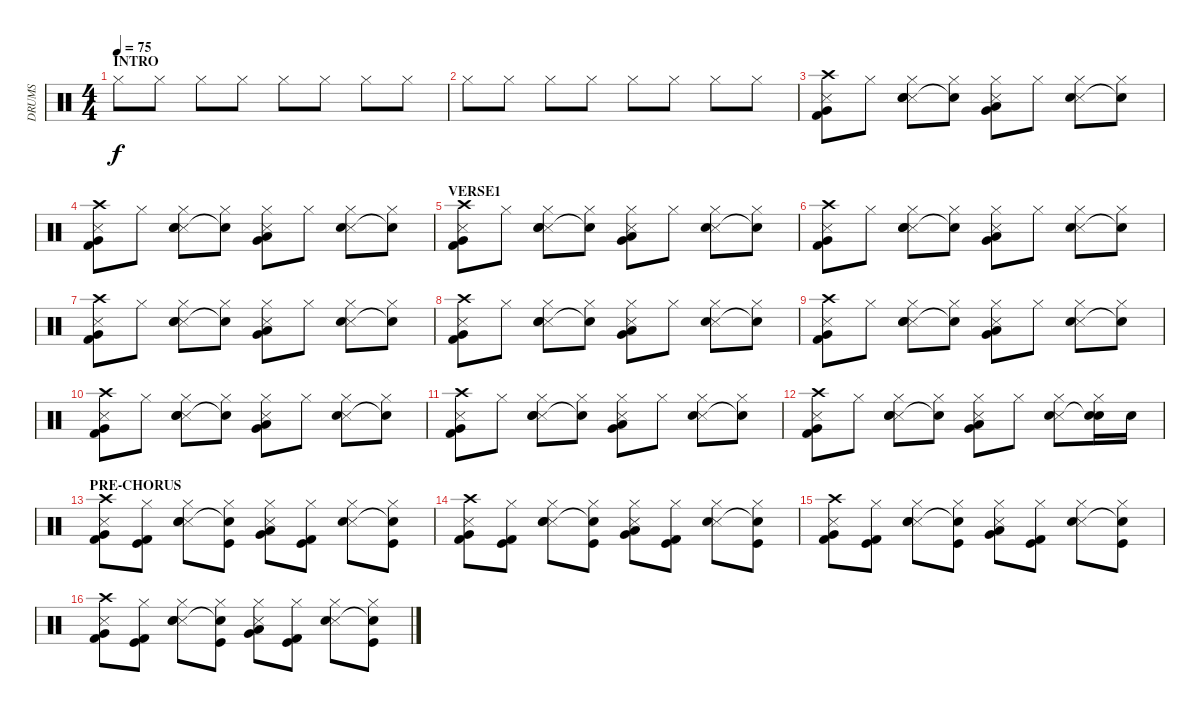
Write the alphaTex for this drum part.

\track ("DRUMS" "DRUMS") {instrument percussion}
\staff {score}
\articulation defaults
\ts (4 4)
\section ("" "INTRO")
\tempo 75
\clef neutral
\ks c "Hi-Hat (closed)".8{dy f} "Hi-Hat (closed)".8 "Hi-Hat (closed)".8 "Hi-Hat (closed)".8 "Hi-Hat (closed)".8 "Hi-Hat (closed)".8 "Hi-Hat (closed)".8 "Hi-Hat (closed)".8
|
"Hi-Hat (closed)".8 "Hi-Hat (closed)".8 "Hi-Hat (closed)".8 "Hi-Hat (closed)".8 "Hi-Hat (closed)".8 "Hi-Hat (closed)".8 "Hi-Hat (closed)".8 "Hi-Hat (closed)".8 |
("Crash high (hit)" "Snare (side stick) 3" "Very Low Tom (hit)" "Kick (hit) 2").8 "Hi-Hat (closed)".8 ("Hi-Hat (closed)" "Snare (side stick) 3" "Electric Snare (hit)" "Snare (hit) 2").8 ("Hi-Hat (closed)" "Snare (hit)"{t}).8 ("Hi-Hat (closed)" "Snare (side stick) 3" "Very Low Tom (hit)" "Low Floor Tom (hit)").8 "Hi-Hat (closed)".8 ("Hi-Hat (closed)" "Snare (side stick) 3" "Electric Snare (hit)").8 ("Hi-Hat (closed)" "Snare (hit)"{t}).8 |
("Crash high (hit)" "Snare (side stick) 3" "Very Low Tom (hit)" "Kick (hit) 2").8 "Hi-Hat (closed)".8 ("Hi-Hat (closed)" "Snare (side stick) 3" "Electric Snare (hit)" "Snare (hit) 2").8 ("Hi-Hat (closed)" "Snare (hit)"{t}).8 ("Hi-Hat (closed)" "Snare (side stick) 3" "Very Low Tom (hit)" "Low Floor Tom (hit)").8 "Hi-Hat (closed)".8 ("Hi-Hat (closed)" "Snare (side stick) 3" "Electric Snare (hit)").8 ("Hi-Hat (closed)" "Snare (hit)"{t}).8 |
\section ("" "VERSE1")
("Crash high (hit)" "Snare (side stick) 3" "Very Low Tom (hit)" "Kick (hit) 2").8 "Hi-Hat (closed)".8 ("Hi-Hat (closed)" "Snare (side stick) 3" "Electric Snare (hit)" "Snare (hit) 2").8 ("Hi-Hat (closed)" "Snare (hit)"{t}).8 ("Hi-Hat (closed)" "Snare (side stick) 3" "Very Low Tom (hit)" "Low Floor Tom (hit)").8 "Hi-Hat (closed)".8 ("Hi-Hat (closed)" "Snare (side stick) 3" "Electric Snare (hit)").8 ("Hi-Hat (closed)" "Snare (hit)"{t}).8 |
("Crash high (hit)" "Snare (side stick) 3" "Very Low Tom (hit)" "Kick (hit) 2").8 "Hi-Hat (closed)".8 ("Hi-Hat (closed)" "Snare (side stick) 3" "Electric Snare (hit)" "Snare (hit) 2").8 ("Hi-Hat (closed)" "Snare (hit)"{t}).8 ("Hi-Hat (closed)" "Snare (side stick) 3" "Very Low Tom (hit)" "Low Floor Tom (hit)").8 "Hi-Hat (closed)".8 ("Hi-Hat (closed)" "Snare (side stick) 3" "Electric Snare (hit)").8 ("Hi-Hat (closed)" "Snare (hit)"{t}).8 |
("Crash high (hit)" "Snare (side stick) 3" "Very Low Tom (hit)" "Kick (hit) 2").8 "Hi-Hat (closed)".8 ("Hi-Hat (closed)" "Snare (side stick) 3" "Electric Snare (hit)" "Snare (hit) 2").8 ("Hi-Hat (closed)" "Snare (hit)"{t}).8 ("Hi-Hat (closed)" "Snare (side stick) 3" "Very Low Tom (hit)" "Low Floor Tom (hit)").8 "Hi-Hat (closed)".8 ("Hi-Hat (closed)" "Snare (side stick) 3" "Electric Snare (hit)").8 ("Hi-Hat (closed)" "Snare (hit)"{t}).8 |
("Crash high (hit)" "Snare (side stick) 3" "Very Low Tom (hit)" "Kick (hit) 2").8 "Hi-Hat (closed)".8 ("Hi-Hat (closed)" "Snare (side stick) 3" "Electric Snare (hit)" "Snare (hit) 2").8 ("Hi-Hat (closed)" "Snare (hit)"{t}).8 ("Hi-Hat (closed)" "Snare (side stick) 3" "Very Low Tom (hit)" "Low Floor Tom (hit)").8 "Hi-Hat (closed)".8 ("Hi-Hat (closed)" "Snare (side stick) 3" "Electric Snare (hit)").8 ("Hi-Hat (closed)" "Snare (hit)"{t}).8 |
("Crash high (hit)" "Snare (side stick) 3" "Very Low Tom (hit)" "Kick (hit) 2").8 "Hi-Hat (closed)".8 ("Hi-Hat (closed)" "Snare (side stick) 3" "Electric Snare (hit)" "Snare (hit) 2").8 ("Hi-Hat (closed)" "Snare (hit)"{t}).8 ("Hi-Hat (closed)" "Snare (side stick) 3" "Very Low Tom (hit)" "Low Floor Tom (hit)").8 "Hi-Hat (closed)".8 ("Hi-Hat (closed)" "Snare (side stick) 3" "Electric Snare (hit)").8 ("Hi-Hat (closed)" "Snare (hit)"{t}).8 |
("Crash high (hit)" "Snare (side stick) 3" "Very Low Tom (hit)" "Kick (hit) 2").8 "Hi-Hat (closed)".8 ("Hi-Hat (closed)" "Snare (side stick) 3" "Electric Snare (hit)" "Snare (hit) 2").8 ("Hi-Hat (closed)" "Snare (hit)"{t}).8 ("Hi-Hat (closed)" "Snare (side stick) 3" "Very Low Tom (hit)" "Low Floor Tom (hit)").8 "Hi-Hat (closed)".8 ("Hi-Hat (closed)" "Snare (side stick) 3" "Electric Snare (hit)").8 ("Hi-Hat (closed)" "Snare (hit)"{t}).8 |
("Crash high (hit)" "Snare (side stick) 3" "Very Low Tom (hit)" "Kick (hit) 2").8 "Hi-Hat (closed)".8 ("Hi-Hat (closed)" "Snare (side stick) 3" "Electric Snare (hit)" "Snare (hit) 2").8 ("Hi-Hat (closed)" "Snare (hit)"{t}).8 ("Hi-Hat (closed)" "Snare (side stick) 3" "Very Low Tom (hit)" "Low Floor Tom (hit)").8 "Hi-Hat (closed)".8 ("Hi-Hat (closed)" "Snare (side stick) 3" "Electric Snare (hit)").8 ("Hi-Hat (closed)" "Snare (hit)"{t}).8 |
("Crash high (hit)" "Snare (side stick) 3" "Very Low Tom (hit)" "Kick (hit) 2").8 "Hi-Hat (closed)".8 ("Hi-Hat (closed)" "Snare (side stick) 3" "Electric Snare (hit)" "Snare (hit) 2").8 ("Hi-Hat (closed)" "Snare (hit)"{t}).8 ("Hi-Hat (closed)" "Snare (side stick) 3" "Very Low Tom (hit)" "Low Floor Tom (hit)").8 "Hi-Hat (closed)".8 ("Hi-Hat (closed)" "Snare (side stick) 3" "Electric Snare (hit)").8 ("Hi-Hat (closed)" "Electric Snare (hit)" "Snare (hit)"{t}).16 "Electric Snare (hit)".16 |
\section ("" "PRE-CHORUS")
("Crash high (hit)" "Snare (side stick) 3" "Very Low Tom (hit)" "Kick (hit) 2").8 ("Hi-Hat (closed)" "Kick (hit)" "Kick (hit) 2").8 ("Hi-Hat (closed)" "Snare (side stick) 3" "Electric Snare (hit)" "Snare (hit) 2").8 ("Hi-Hat (closed)" "Kick (hit)" "Snare (hit)"{t}).8 ("Hi-Hat (closed)" "Snare (side stick) 3" "Very Low Tom (hit)" "Low Floor Tom (hit)").8 ("Hi-Hat (closed)" "Kick (hit)" "Kick (hit) 2").8 ("Hi-Hat (closed)" "Snare (side stick) 3" "Electric Snare (hit)").8 ("Hi-Hat (closed)" "Kick (hit)" "Snare (hit)"{t}).8 |
("Crash high (hit)" "Snare (side stick) 3" "Very Low Tom (hit)" "Kick (hit) 2").8 ("Hi-Hat (closed)" "Kick (hit)" "Kick (hit) 2").8 ("Hi-Hat (closed)" "Snare (side stick) 3" "Electric Snare (hit)" "Snare (hit) 2").8 ("Hi-Hat (closed)" "Kick (hit)" "Snare (hit)"{t}).8 ("Hi-Hat (closed)" "Snare (side stick) 3" "Very Low Tom (hit)" "Low Floor Tom (hit)").8 ("Hi-Hat (closed)" "Kick (hit)" "Kick (hit) 2").8 ("Hi-Hat (closed)" "Snare (side stick) 3" "Electric Snare (hit)").8 ("Hi-Hat (closed)" "Kick (hit)" "Snare (hit)"{t}).8 |
("Crash high (hit)" "Snare (side stick) 3" "Very Low Tom (hit)" "Kick (hit) 2").8 ("Hi-Hat (closed)" "Kick (hit)" "Kick (hit) 2").8 ("Hi-Hat (closed)" "Snare (side stick) 3" "Electric Snare (hit)" "Snare (hit) 2").8 ("Hi-Hat (closed)" "Kick (hit)" "Snare (hit)"{t}).8 ("Hi-Hat (closed)" "Snare (side stick) 3" "Very Low Tom (hit)" "Low Floor Tom (hit)").8 ("Hi-Hat (closed)" "Kick (hit)" "Kick (hit) 2").8 ("Hi-Hat (closed)" "Snare (side stick) 3" "Electric Snare (hit)").8 ("Hi-Hat (closed)" "Kick (hit)" "Snare (hit)"{t}).8 |
("Crash high (hit)" "Snare (side stick) 3" "Very Low Tom (hit)" "Kick (hit) 2").8 ("Hi-Hat (closed)" "Kick (hit)" "Kick (hit) 2").8 ("Hi-Hat (closed)" "Snare (side stick) 3" "Electric Snare (hit)" "Snare (hit) 2").8 ("Hi-Hat (closed)" "Kick (hit)" "Snare (hit)"{t}).8 ("Hi-Hat (closed)" "Snare (side stick) 3" "Very Low Tom (hit)" "Low Floor Tom (hit)").8 ("Hi-Hat (closed)" "Kick (hit)" "Kick (hit) 2").8 ("Hi-Hat (closed)" "Snare (side stick) 3" "Electric Snare (hit)").8 ("Hi-Hat (closed)" "Kick (hit)" "Snare (hit)"{t}).8
